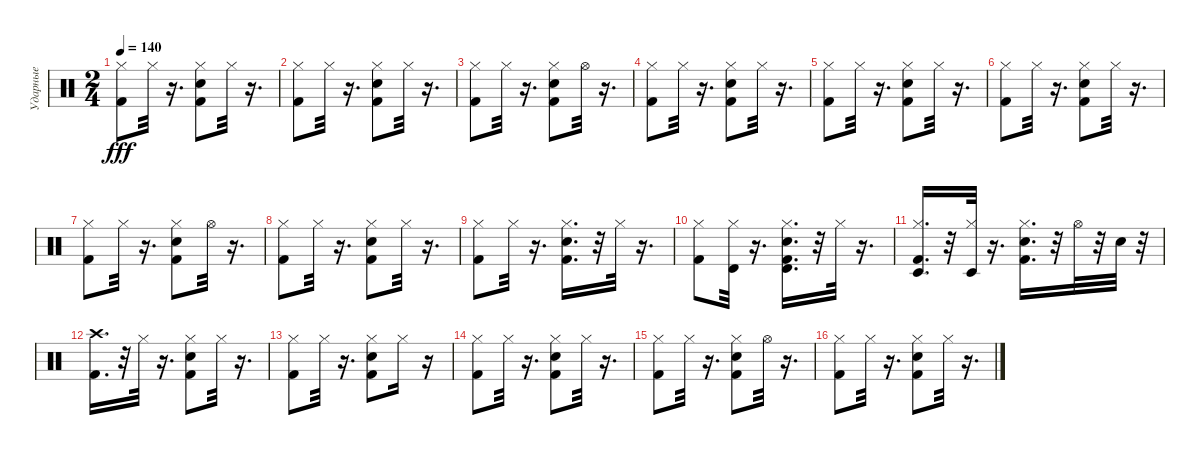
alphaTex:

\track ("Ударные" "Ударные") {instrument percussion}
\staff {score}
\articulation defaults
\ts (2 4)
\tempo 140
\clef neutral
\ks c
("Kick (hit) 2" "Hi-Hat (closed)").8{dy fff} "Hi-Hat (closed)".32 r.16{d} ("Snare (hit) 2" "Kick (hit) 2" "Hi-Hat (closed)").8 "Hi-Hat (closed)".32 r.16{d} |
("Kick (hit) 2" "Hi-Hat (closed)").8 "Hi-Hat (closed)".32 r.16{d} ("Snare (hit) 2" "Kick (hit) 2" "Hi-Hat (closed)").8 "Hi-Hat (closed)".32 r.16{d} |
("Kick (hit) 2" "Hi-Hat (closed)").8 "Hi-Hat (closed)".32 r.16{d} ("Kick (hit) 2" "Snare (hit) 2" "Hi-Hat (closed)").8 "Hi-Hat (open)".32 r.16{d} |
("Kick (hit) 2" "Hi-Hat (closed)").8 "Hi-Hat (closed)".32 r.16{d} ("Snare (hit) 2" "Kick (hit) 2" "Hi-Hat (closed)").8 "Hi-Hat (closed)".32 r.16{d} |
("Kick (hit) 2" "Hi-Hat (closed)").8 "Hi-Hat (closed)".32 r.16{d} ("Snare (hit) 2" "Kick (hit) 2" "Hi-Hat (closed)").8 "Hi-Hat (closed)".32 r.16{d} |
("Kick (hit) 2" "Hi-Hat (closed)").8 "Hi-Hat (closed)".32 r.16{d} ("Snare (hit) 2" "Kick (hit) 2" "Hi-Hat (closed)").8 "Hi-Hat (closed)".32 r.16{d} |
("Kick (hit) 2" "Hi-Hat (closed)").8 "Hi-Hat (closed)".32 r.16{d} ("Snare (hit) 2" "Kick (hit) 2" "Hi-Hat (closed)").8 "Hi-Hat (open)".32 r.16{d} |
("Kick (hit) 2" "Hi-Hat (closed)").8 "Hi-Hat (closed)".32 r.16{d} ("Snare (hit) 2" "Kick (hit) 2" "Hi-Hat (closed)").8 "Hi-Hat (closed)".32 r.16{d} |
("Kick (hit) 2" "Hi-Hat (closed)").8 "Hi-Hat (closed)".32 r.16{d} ("Snare (hit) 2" "Kick (hit) 2" "Hi-Hat (closed)").16{d} r.32 "Hi-Hat (closed)".32 r.16{d} |
("Kick (hit) 2" "Hi-Hat (closed)").8 ("Timbale high (hit)" "Hi-Hat (closed)").32 r.16{d} ("Kick (hit) 2" "Hi-Hat (closed)" "Timbale high (hit)" "Snare (hit) 2").16{d} r.32 "Hi-Hat (closed)".32 r.16{d} |
("Hi-Hat (closed)" "Kick (hit) 2" "Timbale low (hit)").16{d} r.32 ("Timbale low (hit)" "Hi-Hat (closed)").32 r.16{d} ("Hi-Hat (closed)" "Snare (hit) 2" "Kick (hit) 2").16{d} r.32 "Hi-Hat (open)".32 r.32 "Snare (hit) 2".32 r.32 |
("Kick (hit) 2" "Crash high (hit)").16{d} r.32 "Hi-Hat (closed)".32 r.16{d} ("Kick (hit) 2" "Snare (hit) 2" "Hi-Hat (closed)").8 "Hi-Hat (closed)".32 r.16{d} |
("Kick (hit) 2" "Hi-Hat (closed)").8 "Hi-Hat (closed)".32 r.16{d} ("Hi-Hat (closed)" "Snare (hit) 2" "Kick (hit) 2").8 "Hi-Hat (closed)".16 r.16 |
("Kick (hit) 2" "Hi-Hat (closed)").8 "Hi-Hat (closed)".32 r.16{d} ("Snare (hit) 2" "Kick (hit) 2" "Hi-Hat (closed)").8 "Hi-Hat (closed)".32 r.16{d} |
("Kick (hit) 2" "Hi-Hat (closed)").8 "Hi-Hat (closed)".32 r.16{d} ("Kick (hit) 2" "Snare (hit) 2" "Hi-Hat (closed)").8 "Hi-Hat (open)".32 r.16{d} |
("Kick (hit) 2" "Hi-Hat (closed)").8 "Hi-Hat (closed)".32 r.16{d} ("Kick (hit) 2" "Hi-Hat (closed)" "Snare (hit) 2").8 "Hi-Hat (closed)".32 r.16{d}
